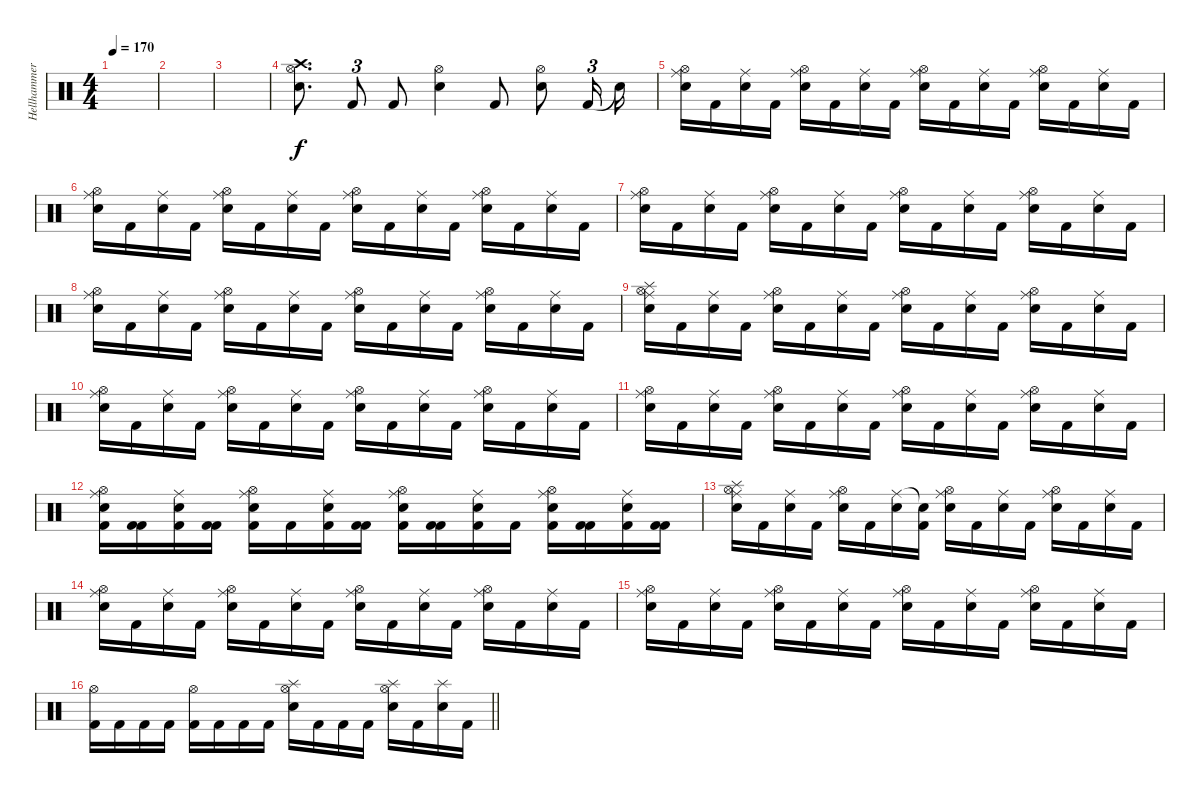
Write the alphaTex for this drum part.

\track ("Hellhammer" "Hellhammer") {instrument percussion}
\staff {score}
\articulation defaults
\ts (4 4)
\tempo 170
\clef neutral
\ks c
|
|
|
("Hi-Hat (open)" "Snare (hit) 2" "Crash high (hit)").8{d} "Kick (hit) 2".8{tu (3 2)} "Kick (hit) 2".8 ("Hi-Hat (open)" "Snare (hit) 2").4 "Kick (hit) 2".8 ("Hi-Hat (open)" "Snare (hit) 2").8 "Kick (hit) 2".16{tu (3 2)} "Snare (hit)"{t}.16 |
("Hi-Hat (open)" "Ride (middle)" "Electric Snare (hit)").16 "Kick (hit) 2".16 ("Ride (middle)" "Electric Snare (hit)").16 "Kick (hit) 2".16 ("Hi-Hat (open)" "Ride (middle)" "Electric Snare (hit)").16 "Kick (hit) 2".16 ("Ride (middle)" "Electric Snare (hit)").16 "Kick (hit) 2".16 ("Hi-Hat (open)" "Ride (middle)" "Electric Snare (hit)").16 "Kick (hit) 2".16 ("Ride (middle)" "Electric Snare (hit)").16 "Kick (hit) 2".16 ("Hi-Hat (open)" "Ride (middle)" "Electric Snare (hit)").16 "Kick (hit) 2".16 ("Ride (middle)" "Electric Snare (hit)").16 "Kick (hit) 2".16 |
("Hi-Hat (open)" "Ride (middle)" "Electric Snare (hit)").16 "Kick (hit) 2".16 ("Ride (middle)" "Electric Snare (hit)").16 "Kick (hit) 2".16 ("Hi-Hat (open)" "Ride (middle)" "Electric Snare (hit)").16 "Kick (hit) 2".16 ("Ride (middle)" "Electric Snare (hit)").16 "Kick (hit) 2".16 ("Hi-Hat (open)" "Ride (middle)" "Electric Snare (hit)").16 "Kick (hit) 2".16 ("Ride (middle)" "Electric Snare (hit)").16 "Kick (hit) 2".16 ("Hi-Hat (open)" "Ride (middle)" "Electric Snare (hit)").16 "Kick (hit) 2".16 ("Ride (middle)" "Electric Snare (hit)").16 "Kick (hit) 2".16 |
("Hi-Hat (open)" "Ride (middle)" "Electric Snare (hit)").16 "Kick (hit) 2".16 ("Ride (middle)" "Electric Snare (hit)").16 "Kick (hit) 2".16 ("Hi-Hat (open)" "Ride (middle)" "Electric Snare (hit)").16 "Kick (hit) 2".16 ("Ride (middle)" "Electric Snare (hit)").16 "Kick (hit) 2".16 ("Hi-Hat (open)" "Ride (middle)" "Electric Snare (hit)").16 "Kick (hit) 2".16 ("Ride (middle)" "Electric Snare (hit)").16 "Kick (hit) 2".16 ("Hi-Hat (open)" "Ride (middle)" "Electric Snare (hit)").16 "Kick (hit) 2".16 ("Ride (middle)" "Electric Snare (hit)").16 "Kick (hit) 2".16 |
("Hi-Hat (open)" "Ride (middle)" "Electric Snare (hit)").16 "Kick (hit) 2".16 ("Ride (middle)" "Electric Snare (hit)").16 "Kick (hit) 2".16 ("Hi-Hat (open)" "Ride (middle)" "Electric Snare (hit)").16 "Kick (hit) 2".16 ("Ride (middle)" "Electric Snare (hit)").16 "Kick (hit) 2".16 ("Hi-Hat (open)" "Ride (middle)" "Electric Snare (hit)").16 "Kick (hit) 2".16 ("Ride (middle)" "Electric Snare (hit)").16 "Kick (hit) 2".16 ("Hi-Hat (open)" "Ride (middle)" "Electric Snare (hit)").16 "Kick (hit) 2".16 ("Ride (middle)" "Electric Snare (hit)").16 "Kick (hit) 2".16 |
("Splash (hit)" "Hi-Hat (open)" "Ride (middle)" "Electric Snare (hit)").16 "Kick (hit) 2".16 ("Ride (middle)" "Electric Snare (hit)").16 "Kick (hit) 2".16 ("Hi-Hat (open)" "Ride (middle)" "Electric Snare (hit)").16 "Kick (hit) 2".16 ("Ride (middle)" "Electric Snare (hit)").16 "Kick (hit) 2".16 ("Hi-Hat (open)" "Ride (middle)" "Electric Snare (hit)").16 "Kick (hit) 2".16 ("Ride (middle)" "Electric Snare (hit)").16 "Kick (hit) 2".16 ("Hi-Hat (open)" "Ride (middle)" "Electric Snare (hit)").16 "Kick (hit) 2".16 ("Ride (middle)" "Electric Snare (hit)").16 "Kick (hit) 2".16 |
("Hi-Hat (open)" "Ride (middle)" "Electric Snare (hit)").16 "Kick (hit) 2".16 ("Ride (middle)" "Electric Snare (hit)").16 "Kick (hit) 2".16 ("Hi-Hat (open)" "Ride (middle)" "Electric Snare (hit)").16 "Kick (hit) 2".16 ("Ride (middle)" "Electric Snare (hit)").16 "Kick (hit) 2".16 ("Hi-Hat (open)" "Ride (middle)" "Electric Snare (hit)").16 "Kick (hit) 2".16 ("Ride (middle)" "Electric Snare (hit)").16 "Kick (hit) 2".16 ("Hi-Hat (open)" "Ride (middle)" "Electric Snare (hit)").16 "Kick (hit) 2".16 ("Ride (middle)" "Electric Snare (hit)").16 "Kick (hit) 2".16 |
("Hi-Hat (open)" "Ride (middle)" "Electric Snare (hit)").16 "Kick (hit) 2".16 ("Ride (middle)" "Electric Snare (hit)").16 "Kick (hit) 2".16 ("Hi-Hat (open)" "Ride (middle)" "Electric Snare (hit)").16 "Kick (hit) 2".16 ("Ride (middle)" "Electric Snare (hit)").16 "Kick (hit) 2".16 ("Hi-Hat (open)" "Ride (middle)" "Electric Snare (hit)").16 "Kick (hit) 2".16 ("Ride (middle)" "Electric Snare (hit)").16 "Kick (hit) 2".16 ("Hi-Hat (open)" "Ride (middle)" "Electric Snare (hit)").16 "Kick (hit) 2".16 ("Ride (middle)" "Electric Snare (hit)").16 "Kick (hit) 2".16 |
("Hi-Hat (open)" "Kick (hit) 2" "Ride (middle)" "Electric Snare (hit)").16 ("Kick (hit) 2" "Kick (hit) 2").16 ("Kick (hit) 2" "Ride (middle)" "Electric Snare (hit)").16 ("Kick (hit) 2" "Kick (hit) 2").16 ("Hi-Hat (open)" "Kick (hit) 2" "Ride (middle)" "Electric Snare (hit)").16 "Kick (hit) 2".16 ("Kick (hit) 2" "Ride (middle)" "Electric Snare (hit)").16 ("Kick (hit) 2" "Kick (hit) 2").16 ("Hi-Hat (open)" "Kick (hit) 2" "Ride (middle)" "Electric Snare (hit)").16 ("Kick (hit) 2" "Kick (hit) 2").16 ("Kick (hit) 2" "Ride (middle)" "Electric Snare (hit)").16 "Kick (hit) 2".16 ("Hi-Hat (open)" "Kick (hit) 2" "Ride (middle)" "Electric Snare (hit)").16 ("Kick (hit) 2" "Kick (hit) 2").16 ("Kick (hit) 2" "Ride (middle)" "Electric Snare (hit)").16 ("Kick (hit) 2" "Kick (hit) 2").16 |
("Hi-Hat (open)" "Splash (hit)" "Ride (middle)" "Electric Snare (hit)").16 "Kick (hit) 2".16 ("Ride (middle)" "Electric Snare (hit)").16 "Kick (hit) 2".16 ("Hi-Hat (open)" "Ride (middle)" "Electric Snare (hit)").16 "Kick (hit) 2".16 ("Ride (middle)" "Electric Snare (hit)").16 ("Snare (hit)"{t} "Kick (hit) 2").16 ("Hi-Hat (open)" "Ride (middle)" "Electric Snare (hit)").16 "Kick (hit) 2".16 ("Ride (middle)" "Electric Snare (hit)").16 "Kick (hit) 2".16 ("Hi-Hat (open)" "Ride (middle)" "Electric Snare (hit)").16 "Kick (hit) 2".16 ("Ride (middle)" "Electric Snare (hit)").16 "Kick (hit) 2".16 |
("Hi-Hat (open)" "Ride (middle)" "Electric Snare (hit)").16 "Kick (hit) 2".16 ("Ride (middle)" "Electric Snare (hit)").16 "Kick (hit) 2".16 ("Hi-Hat (open)" "Ride (middle)" "Electric Snare (hit)").16 "Kick (hit) 2".16 ("Ride (middle)" "Electric Snare (hit)").16 "Kick (hit) 2".16 ("Hi-Hat (open)" "Ride (middle)" "Electric Snare (hit)").16 "Kick (hit) 2".16 ("Ride (middle)" "Electric Snare (hit)").16 "Kick (hit) 2".16 ("Hi-Hat (open)" "Ride (middle)" "Electric Snare (hit)").16 "Kick (hit) 2".16 ("Ride (middle)" "Electric Snare (hit)").16 "Kick (hit) 2".16 |
("Hi-Hat (open)" "Ride (middle)" "Electric Snare (hit)").16 "Kick (hit) 2".16 ("Ride (middle)" "Electric Snare (hit)").16 "Kick (hit) 2".16 ("Hi-Hat (open)" "Ride (middle)" "Electric Snare (hit)").16 "Kick (hit) 2".16 ("Ride (middle)" "Electric Snare (hit)").16 "Kick (hit) 2".16 ("Hi-Hat (open)" "Ride (middle)" "Electric Snare (hit)").16 "Kick (hit) 2".16 ("Ride (middle)" "Electric Snare (hit)").16 "Kick (hit) 2".16 ("Hi-Hat (open)" "Ride (middle)" "Electric Snare (hit)").16 "Kick (hit) 2".16 ("Ride (middle)" "Electric Snare (hit)").16 "Kick (hit) 2".16 |
\barLineRight lightlight
("Hi-Hat (open)" "Kick (hit) 2").16 "Kick (hit) 2".16 "Kick (hit) 2".16 "Kick (hit) 2".16 ("Hi-Hat (open)" "Kick (hit) 2").16 "Kick (hit) 2".16 "Kick (hit) 2".16 "Kick (hit) 2".16 ("Hi-Hat (open)" "Splash (hit)" "Snare (hit) 2").16 "Kick (hit) 2".16 "Kick (hit) 2".16 "Kick (hit) 2".16 ("Hi-Hat (open)" "Splash (hit)" "Snare (hit) 2").16 "Kick (hit) 2".16 ("Splash (hit)" "Snare (hit) 2").16 "Kick (hit) 2".16
